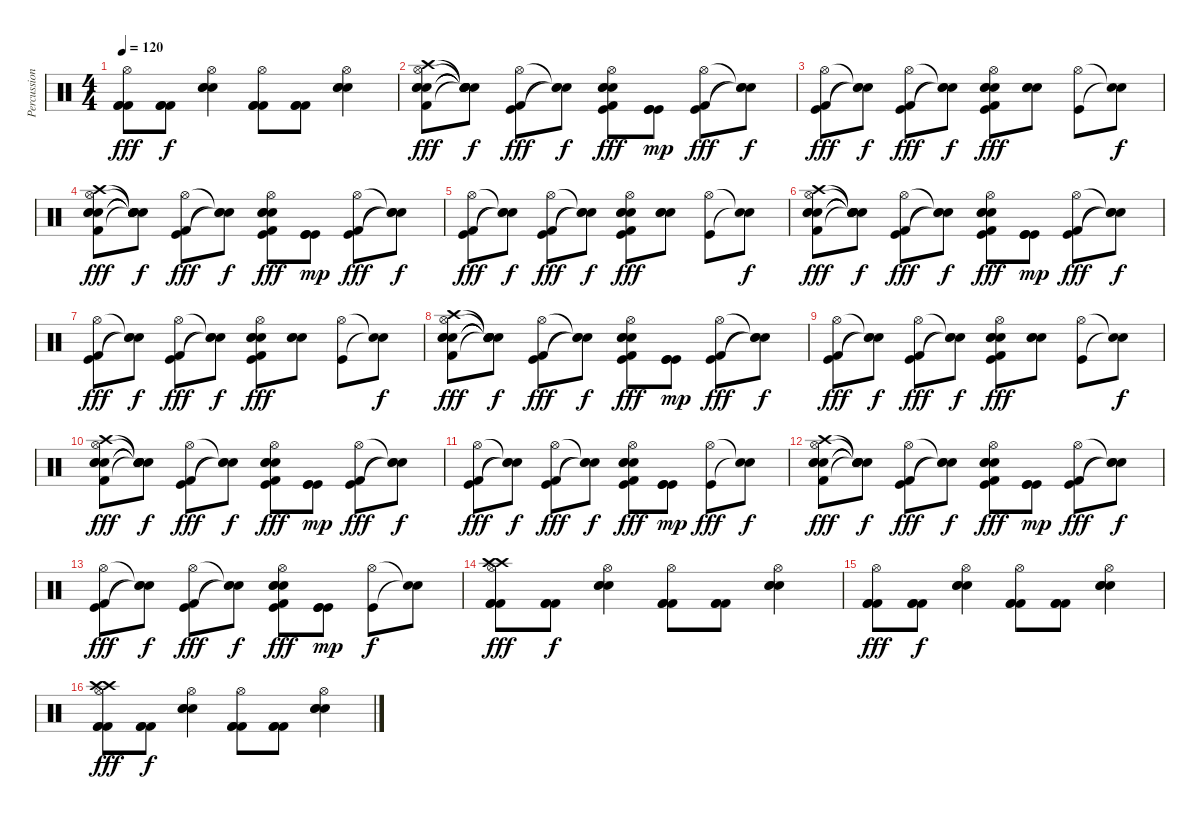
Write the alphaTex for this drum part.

\track ("Percussions" "Percussion") {instrument percussion}
\staff {score}
\articulation defaults
\ts (4 4)
\tempo 120
\clef neutral
\ks c
("Hi-Hat (open)" "Kick (hit) 2" "Kick (hit) 2" "Kick (hit) 2").8{dy fff} ("Kick (hit) 2" "Kick (hit) 2" "Kick (hit) 2").8{dy f} ("Hi-Hat (open)" "Snare (hit) 2" "Snare (hit) 2" "Snare (hit) 2").4 ("Hi-Hat (open)" "Kick (hit) 2" "Kick (hit) 2" "Kick (hit) 2").8 ("Kick (hit) 2" "Kick (hit) 2" "Kick (hit) 2").8 ("Hi-Hat (open)" "Snare (hit) 2" "Snare (hit) 2" "Snare (hit) 2").4 |
("Hi-Hat (open)" "Crash high (hit)" "Snare (hit) 2" "Snare (hit) 2" "Snare (hit) 2" "Kick (hit) 2").8{dy fff} ("Snare (hit)"{t} "Snare (hit)"{t} "Snare (hit)"{t} "Snare (hit)"{t} "Snare (hit)"{t} "Snare (hit)"{t}).8{dy f} ("Hi-Hat (open)" "Kick (hit)" "Kick (hit) 2").8{dy fff} ("Snare (hit)"{t} "Snare (hit)"{t} "Snare (hit)"{t}).8{dy f} ("Hi-Hat (open)" "Kick (hit)" "Snare (hit) 2" "Snare (hit) 2" "Snare (hit) 2" "Kick (hit) 2").8{dy fff} ("Kick (hit)" "Kick (hit)" "Kick (hit)").8{dy mp} ("Hi-Hat (open)" "Kick (hit)" "Kick (hit) 2").8{dy fff} ("Snare (hit)"{t} "Snare (hit)"{t} "Snare (hit)"{t}).8{dy f} |
("Hi-Hat (open)" "Kick (hit)" "Kick (hit) 2").8{dy fff} ("Snare (hit)"{t} "Snare (hit)"{t} "Snare (hit)"{t}).8{dy f} ("Hi-Hat (open)" "Kick (hit)" "Kick (hit) 2").8{dy fff} ("Snare (hit)"{t} "Snare (hit)"{t} "Snare (hit)"{t}).8{dy f} ("Hi-Hat (open)" "Kick (hit)" "Snare (hit) 2" "Snare (hit) 2" "Snare (hit) 2" "Kick (hit) 2").8{dy fff} ("Snare (hit) 2" "Snare (hit) 2" "Snare (hit) 2").8 ("Hi-Hat (open)" "Kick (hit)").8 ("Snare (hit)"{t} "Snare (hit)"{t}).8{dy f} |
("Hi-Hat (open)" "Crash high (hit)" "Snare (hit) 2" "Snare (hit) 2" "Snare (hit) 2" "Kick (hit) 2").8{dy fff} ("Snare (hit)"{t} "Snare (hit)"{t} "Snare (hit)"{t} "Snare (hit)"{t} "Snare (hit)"{t} "Snare (hit)"{t}).8{dy f} ("Hi-Hat (open)" "Kick (hit)" "Kick (hit) 2").8{dy fff} ("Snare (hit)"{t} "Snare (hit)"{t} "Snare (hit)"{t}).8{dy f} ("Hi-Hat (open)" "Kick (hit)" "Snare (hit) 2" "Snare (hit) 2" "Snare (hit) 2" "Kick (hit) 2").8{dy fff} ("Kick (hit)" "Kick (hit)" "Kick (hit)").8{dy mp} ("Hi-Hat (open)" "Kick (hit)" "Kick (hit) 2").8{dy fff} ("Snare (hit)"{t} "Snare (hit)"{t} "Snare (hit)"{t}).8{dy f} |
("Hi-Hat (open)" "Kick (hit)" "Kick (hit) 2").8{dy fff} ("Snare (hit)"{t} "Snare (hit)"{t} "Snare (hit)"{t}).8{dy f} ("Hi-Hat (open)" "Kick (hit)" "Kick (hit) 2").8{dy fff} ("Snare (hit)"{t} "Snare (hit)"{t} "Snare (hit)"{t}).8{dy f} ("Hi-Hat (open)" "Kick (hit)" "Snare (hit) 2" "Snare (hit) 2" "Snare (hit) 2" "Kick (hit) 2").8{dy fff} ("Snare (hit) 2" "Snare (hit) 2" "Snare (hit) 2").8 ("Hi-Hat (open)" "Kick (hit)").8 ("Snare (hit)"{t} "Snare (hit)"{t}).8{dy f} |
("Hi-Hat (open)" "Crash high (hit)" "Snare (hit) 2" "Snare (hit) 2" "Snare (hit) 2" "Kick (hit) 2").8{dy fff} ("Snare (hit)"{t} "Snare (hit)"{t} "Snare (hit)"{t} "Snare (hit)"{t} "Snare (hit)"{t} "Snare (hit)"{t}).8{dy f} ("Hi-Hat (open)" "Kick (hit)" "Kick (hit) 2").8{dy fff} ("Snare (hit)"{t} "Snare (hit)"{t} "Snare (hit)"{t}).8{dy f} ("Hi-Hat (open)" "Kick (hit)" "Snare (hit) 2" "Snare (hit) 2" "Snare (hit) 2" "Kick (hit) 2").8{dy fff} ("Kick (hit)" "Kick (hit)" "Kick (hit)").8{dy mp} ("Hi-Hat (open)" "Kick (hit)" "Kick (hit) 2").8{dy fff} ("Snare (hit)"{t} "Snare (hit)"{t} "Snare (hit)"{t}).8{dy f} |
("Hi-Hat (open)" "Kick (hit)" "Kick (hit) 2").8{dy fff} ("Snare (hit)"{t} "Snare (hit)"{t} "Snare (hit)"{t}).8{dy f} ("Hi-Hat (open)" "Kick (hit)" "Kick (hit) 2").8{dy fff} ("Snare (hit)"{t} "Snare (hit)"{t} "Snare (hit)"{t}).8{dy f} ("Hi-Hat (open)" "Kick (hit)" "Snare (hit) 2" "Snare (hit) 2" "Snare (hit) 2" "Kick (hit) 2").8{dy fff} ("Snare (hit) 2" "Snare (hit) 2" "Snare (hit) 2").8 ("Hi-Hat (open)" "Kick (hit)").8 ("Snare (hit)"{t} "Snare (hit)"{t}).8{dy f} |
("Hi-Hat (open)" "Crash high (hit)" "Snare (hit) 2" "Snare (hit) 2" "Snare (hit) 2" "Kick (hit) 2").8{dy fff} ("Snare (hit)"{t} "Snare (hit)"{t} "Snare (hit)"{t} "Snare (hit)"{t} "Snare (hit)"{t} "Snare (hit)"{t}).8{dy f} ("Hi-Hat (open)" "Kick (hit)" "Kick (hit) 2").8{dy fff} ("Snare (hit)"{t} "Snare (hit)"{t} "Snare (hit)"{t}).8{dy f} ("Hi-Hat (open)" "Kick (hit)" "Snare (hit) 2" "Snare (hit) 2" "Snare (hit) 2" "Kick (hit) 2").8{dy fff} ("Kick (hit)" "Kick (hit)" "Kick (hit)").8{dy mp} ("Hi-Hat (open)" "Kick (hit)" "Kick (hit) 2").8{dy fff} ("Snare (hit)"{t} "Snare (hit)"{t} "Snare (hit)"{t}).8{dy f} |
("Hi-Hat (open)" "Kick (hit)" "Kick (hit) 2").8{dy fff} ("Snare (hit)"{t} "Snare (hit)"{t} "Snare (hit)"{t}).8{dy f} ("Hi-Hat (open)" "Kick (hit)" "Kick (hit) 2").8{dy fff} ("Snare (hit)"{t} "Snare (hit)"{t} "Snare (hit)"{t}).8{dy f} ("Hi-Hat (open)" "Kick (hit)" "Snare (hit) 2" "Snare (hit) 2" "Snare (hit) 2" "Kick (hit) 2").8{dy fff} ("Snare (hit) 2" "Snare (hit) 2" "Snare (hit) 2").8 ("Hi-Hat (open)" "Kick (hit)").8 ("Snare (hit)"{t} "Snare (hit)"{t}).8{dy f} |
("Hi-Hat (open)" "Crash high (hit)" "Snare (hit) 2" "Snare (hit) 2" "Snare (hit) 2" "Kick (hit) 2").8{dy fff} ("Snare (hit)"{t} "Snare (hit)"{t} "Snare (hit)"{t} "Snare (hit)"{t} "Snare (hit)"{t} "Snare (hit)"{t}).8{dy f} ("Hi-Hat (open)" "Kick (hit)" "Kick (hit) 2").8{dy fff} ("Snare (hit)"{t} "Snare (hit)"{t} "Snare (hit)"{t}).8{dy f} ("Hi-Hat (open)" "Kick (hit)" "Snare (hit) 2" "Snare (hit) 2" "Snare (hit) 2" "Kick (hit) 2").8{dy fff} ("Kick (hit)" "Kick (hit)" "Kick (hit)").8{dy mp} ("Hi-Hat (open)" "Kick (hit)" "Kick (hit) 2").8{dy fff} ("Snare (hit)"{t} "Snare (hit)"{t} "Snare (hit)"{t}).8{dy f} |
("Hi-Hat (open)" "Kick (hit)" "Kick (hit) 2").8{dy fff} ("Snare (hit)"{t} "Snare (hit)"{t} "Snare (hit)"{t}).8{dy f} ("Hi-Hat (open)" "Kick (hit)" "Kick (hit) 2").8{dy fff} ("Snare (hit)"{t} "Snare (hit)"{t} "Snare (hit)"{t}).8{dy f} ("Hi-Hat (open)" "Kick (hit)" "Snare (hit) 2" "Snare (hit) 2" "Snare (hit) 2" "Kick (hit) 2").8{dy fff} ("Kick (hit)" "Kick (hit)" "Kick (hit)").8{dy mp} ("Hi-Hat (open)" "Kick (hit)").8{dy fff} ("Snare (hit)"{t} "Snare (hit)"{t}).8{dy f} |
("Hi-Hat (open)" "Crash high (hit)" "Snare (hit) 2" "Snare (hit) 2" "Snare (hit) 2" "Kick (hit) 2").8{dy fff} ("Snare (hit)"{t} "Snare (hit)"{t} "Snare (hit)"{t} "Snare (hit)"{t} "Snare (hit)"{t} "Snare (hit)"{t}).8{dy f} ("Hi-Hat (open)" "Kick (hit)" "Kick (hit) 2").8{dy fff} ("Snare (hit)"{t} "Snare (hit)"{t} "Snare (hit)"{t}).8{dy f} ("Hi-Hat (open)" "Kick (hit)" "Snare (hit) 2" "Snare (hit) 2" "Snare (hit) 2" "Kick (hit) 2").8{dy fff} ("Kick (hit)" "Kick (hit)" "Kick (hit)").8{dy mp} ("Hi-Hat (open)" "Kick (hit)" "Kick (hit) 2").8{dy fff} ("Snare (hit)"{t} "Snare (hit)"{t} "Snare (hit)"{t}).8{dy f} |
("Hi-Hat (open)" "Kick (hit)" "Kick (hit) 2").8{dy fff} ("Snare (hit)"{t} "Snare (hit)"{t} "Snare (hit)"{t}).8{dy f} ("Hi-Hat (open)" "Kick (hit)" "Kick (hit) 2").8{dy fff} ("Snare (hit)"{t} "Snare (hit)"{t} "Snare (hit)"{t}).8{dy f} ("Hi-Hat (open)" "Kick (hit)" "Snare (hit) 2" "Snare (hit) 2" "Snare (hit) 2" "Kick (hit) 2").8{dy fff} ("Kick (hit)" "Kick (hit)" "Kick (hit)").8{dy mp} ("Hi-Hat (open)" "Kick (hit)").8{dy f} ("Snare (hit)"{t} "Snare (hit)"{t}).8 |
("Hi-Hat (open)" "Crash high (hit)" "Crash high (hit)" "Kick (hit) 2" "Kick (hit) 2" "Kick (hit) 2").8{dy fff} ("Kick (hit) 2" "Kick (hit) 2" "Kick (hit) 2").8{dy f} ("Hi-Hat (open)" "Snare (hit) 2" "Snare (hit) 2" "Snare (hit) 2").4 ("Hi-Hat (open)" "Kick (hit) 2" "Kick (hit) 2" "Kick (hit) 2").8 ("Kick (hit) 2" "Kick (hit) 2" "Kick (hit) 2").8 ("Hi-Hat (open)" "Snare (hit) 2" "Snare (hit) 2" "Snare (hit) 2").4 |
("Hi-Hat (open)" "Kick (hit) 2" "Kick (hit) 2" "Kick (hit) 2").8{dy fff} ("Kick (hit) 2" "Kick (hit) 2" "Kick (hit) 2").8{dy f} ("Hi-Hat (open)" "Snare (hit) 2" "Snare (hit) 2" "Snare (hit) 2").4 ("Hi-Hat (open)" "Kick (hit) 2" "Kick (hit) 2" "Kick (hit) 2").8 ("Kick (hit) 2" "Kick (hit) 2" "Kick (hit) 2").8 ("Hi-Hat (open)" "Snare (hit) 2" "Snare (hit) 2" "Snare (hit) 2").4 |
("Hi-Hat (open)" "Crash high (hit)" "Crash high (hit)" "Kick (hit) 2" "Kick (hit) 2" "Kick (hit) 2").8{dy fff} ("Kick (hit) 2" "Kick (hit) 2" "Kick (hit) 2").8{dy f} ("Hi-Hat (open)" "Snare (hit) 2" "Snare (hit) 2" "Snare (hit) 2").4 ("Hi-Hat (open)" "Kick (hit) 2" "Kick (hit) 2" "Kick (hit) 2").8 ("Kick (hit) 2" "Kick (hit) 2" "Kick (hit) 2").8 ("Hi-Hat (open)" "Snare (hit) 2" "Snare (hit) 2" "Snare (hit) 2").4
